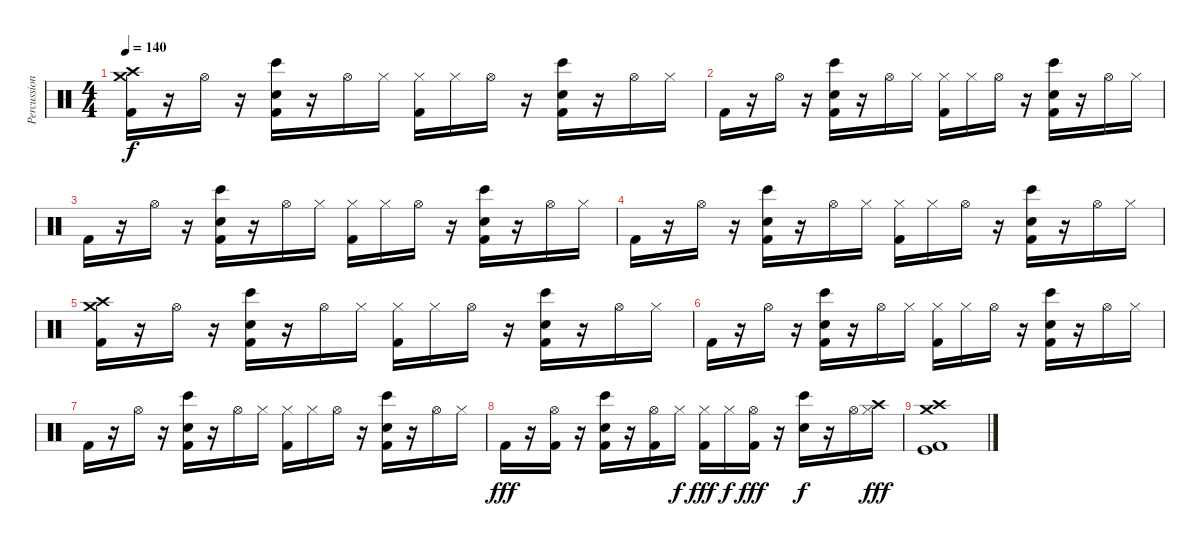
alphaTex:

\track ("Percussion" "Percussion") {instrument percussion}
\staff {score}
\articulation defaults
\ts (4 4)
\tempo 140
\clef neutral
\ks c
("Crash high (hit)" "Crash medium (hit)" "Kick (hit) 2").16{dy f} r.16 "Hi-Hat (open)".16 r.16 ("Hand Clap (hit)" "Bongo High (hit)" "Kick (hit) 2").16 r.16 "Hi-Hat (open)".16 "Hi-Hat (closed)".16 ("Hi-Hat (closed)" "Kick (hit) 2").16 "Hi-Hat (closed)".16 "Hi-Hat (open)".16 r.16 ("Hand Clap (hit)" "Bongo High (hit)" "Kick (hit) 2").16 r.16 "Hi-Hat (open)".16 "Hi-Hat (closed)".16 |
"Kick (hit) 2".16 r.16 "Hi-Hat (open)".16 r.16 ("Hand Clap (hit)" "Bongo High (hit)" "Kick (hit) 2").16 r.16 "Hi-Hat (open)".16 "Hi-Hat (closed)".16 ("Hi-Hat (closed)" "Kick (hit) 2").16 "Hi-Hat (closed)".16 "Hi-Hat (open)".16 r.16 ("Hand Clap (hit)" "Bongo High (hit)" "Kick (hit) 2").16 r.16 "Hi-Hat (open)".16 "Hi-Hat (closed)".16 |
"Kick (hit) 2".16 r.16 "Hi-Hat (open)".16 r.16 ("Hand Clap (hit)" "Bongo High (hit)" "Kick (hit) 2").16 r.16 "Hi-Hat (open)".16 "Hi-Hat (closed)".16 ("Hi-Hat (closed)" "Kick (hit) 2").16 "Hi-Hat (closed)".16 "Hi-Hat (open)".16 r.16 ("Hand Clap (hit)" "Bongo High (hit)" "Kick (hit) 2").16 r.16 "Hi-Hat (open)".16 "Hi-Hat (closed)".16 |
"Kick (hit) 2".16 r.16 "Hi-Hat (open)".16 r.16 ("Hand Clap (hit)" "Bongo High (hit)" "Kick (hit) 2").16 r.16 "Hi-Hat (open)".16 "Hi-Hat (closed)".16 ("Hi-Hat (closed)" "Kick (hit) 2").16 "Hi-Hat (closed)".16 "Hi-Hat (open)".16 r.16 ("Hand Clap (hit)" "Bongo High (hit)" "Kick (hit) 2").16 r.16 "Hi-Hat (open)".16 "Hi-Hat (closed)".16 |
("Crash high (hit)" "Crash medium (hit)" "Kick (hit) 2").16 r.16 "Hi-Hat (open)".16 r.16 ("Hand Clap (hit)" "Bongo High (hit)" "Kick (hit) 2").16 r.16 "Hi-Hat (open)".16 "Hi-Hat (closed)".16 ("Hi-Hat (closed)" "Kick (hit) 2").16 "Hi-Hat (closed)".16 "Hi-Hat (open)".16 r.16 ("Hand Clap (hit)" "Bongo High (hit)" "Kick (hit) 2").16 r.16 "Hi-Hat (open)".16 "Hi-Hat (closed)".16 |
"Kick (hit) 2".16 r.16 "Hi-Hat (open)".16 r.16 ("Hand Clap (hit)" "Bongo High (hit)" "Kick (hit) 2").16 r.16 "Hi-Hat (open)".16 "Hi-Hat (closed)".16 ("Hi-Hat (closed)" "Kick (hit) 2").16 "Hi-Hat (closed)".16 "Hi-Hat (open)".16 r.16 ("Hand Clap (hit)" "Bongo High (hit)" "Kick (hit) 2").16 r.16 "Hi-Hat (open)".16 "Hi-Hat (closed)".16 |
"Kick (hit) 2".16 r.16 "Hi-Hat (open)".16 r.16 ("Hand Clap (hit)" "Bongo High (hit)" "Kick (hit) 2").16 r.16 "Hi-Hat (open)".16 "Hi-Hat (closed)".16 ("Hi-Hat (closed)" "Kick (hit) 2").16 "Hi-Hat (closed)".16 "Hi-Hat (open)".16 r.16 ("Hand Clap (hit)" "Bongo High (hit)" "Kick (hit) 2").16 r.16 "Hi-Hat (open)".16 "Hi-Hat (closed)".16 |
"Kick (hit) 2".16{dy fff} r.16 ("Hi-Hat (open)" "Kick (hit) 2").16 r.16 ("Hand Clap (hit)" "Bongo High (hit)" "Kick (hit) 2").16 r.16 ("Hi-Hat (open)" "Kick (hit) 2").16 "Hi-Hat (closed)".16{dy f} ("Hi-Hat (closed)" "Kick (hit) 2").16{dy fff} "Hi-Hat (closed)".16{dy f} ("Hi-Hat (open)" "Kick (hit) 2").16{dy fff} r.16 ("Hand Clap (hit)" "Bongo High (hit)").16{dy f} r.16 "Hi-Hat (open)".16 ("Crash high (hit)" "Hi-Hat (closed)").16{dy fff} |
("Crash high (hit)" "Crash medium (hit)" "Kick (hit) 2" "Kick (hit)").1
